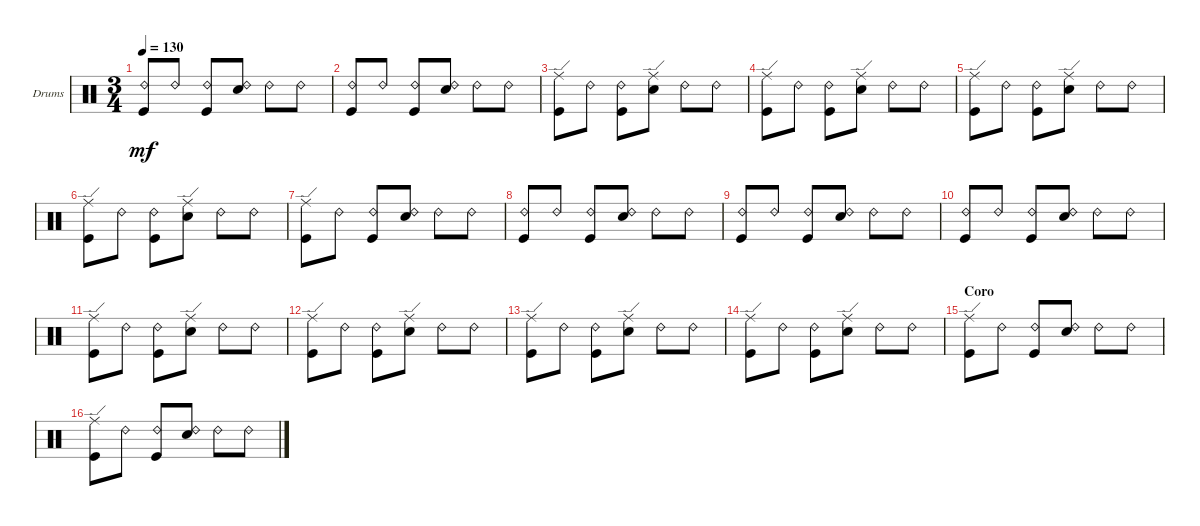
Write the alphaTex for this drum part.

\defaultSystemsLayout 4
\bracketExtendMode groupsimilarinstruments
\firstSystemTrackNameOrientation horizontal
\otherSystemsTrackNameOrientation horizontal
\track ("Drumkit" "Drums") {instrument percussion}
\staff {score}
\articulation defaults
\ts (3 4)
\tempo 130
\clef neutral
\ks c
("Kick (hit)" "Ride (bell) 2").8{dy mf} "Ride (bell) 2".8 ("Kick (hit)" "Ride (bell) 2").8 ("Snare (hit) 2" "Ride (bell) 2").8 "Ride (bell) 2".8 "Ride (bell) 2".8 |
("Kick (hit)" "Ride (bell) 2").8 "Ride (bell) 2".8 ("Kick (hit)" "Ride (bell) 2").8 ("Snare (hit) 2" "Ride (bell) 2").8 "Ride (bell) 2".8 "Ride (bell) 2".8 |
("Ride (edge)" "Kick (hit)").8 "Ride (bell) 2".8 ("Ride (bell) 2" "Kick (hit)").8 ("Ride (edge)" "Snare (hit) 2").8 "Ride (bell) 2".8 "Ride (bell) 2".8 |
("Ride (edge)" "Kick (hit)").8 "Ride (bell) 2".8 ("Ride (bell) 2" "Kick (hit)").8 ("Ride (edge)" "Snare (hit) 2").8 "Ride (bell) 2".8 "Ride (bell) 2".8 |
("Ride (edge)" "Kick (hit)").8 "Ride (bell) 2".8 ("Ride (bell) 2" "Kick (hit)").8 ("Ride (edge)" "Snare (hit) 2").8 "Ride (bell) 2".8 "Ride (bell) 2".8 |
("Ride (edge)" "Kick (hit)").8 "Ride (bell) 2".8 ("Ride (bell) 2" "Kick (hit)").8 ("Ride (edge)" "Snare (hit) 2").8 "Ride (bell) 2".8 "Ride (bell) 2".8 |
("Kick (hit)" "Ride (edge)").8 "Ride (bell) 2".8 ("Kick (hit)" "Ride (bell) 2").8 ("Snare (hit) 2" "Ride (bell) 2").8 "Ride (bell) 2".8 "Ride (bell) 2".8 |
("Kick (hit)" "Ride (bell) 2").8 "Ride (bell) 2".8 ("Kick (hit)" "Ride (bell) 2").8 ("Snare (hit) 2" "Ride (bell) 2").8 "Ride (bell) 2".8 "Ride (bell) 2".8 |
("Kick (hit)" "Ride (bell) 2").8 "Ride (bell) 2".8 ("Kick (hit)" "Ride (bell) 2").8 ("Snare (hit) 2" "Ride (bell) 2").8 "Ride (bell) 2".8 "Ride (bell) 2".8 |
("Kick (hit)" "Ride (bell) 2").8 "Ride (bell) 2".8 ("Kick (hit)" "Ride (bell) 2").8 ("Snare (hit) 2" "Ride (bell) 2").8 "Ride (bell) 2".8 "Ride (bell) 2".8 |
("Ride (edge)" "Kick (hit)").8 "Ride (bell) 2".8 ("Ride (bell) 2" "Kick (hit)").8 ("Ride (edge)" "Snare (hit) 2").8 "Ride (bell) 2".8 "Ride (bell) 2".8 |
("Ride (edge)" "Kick (hit)").8 "Ride (bell) 2".8 ("Ride (bell) 2" "Kick (hit)").8 ("Ride (edge)" "Snare (hit) 2").8 "Ride (bell) 2".8 "Ride (bell) 2".8 |
("Ride (edge)" "Kick (hit)").8 "Ride (bell) 2".8 ("Ride (bell) 2" "Kick (hit)").8 ("Ride (edge)" "Snare (hit) 2").8 "Ride (bell) 2".8 "Ride (bell) 2".8 |
("Ride (edge)" "Kick (hit)").8 "Ride (bell) 2".8 ("Ride (bell) 2" "Kick (hit)").8 ("Ride (edge)" "Snare (hit) 2").8 "Ride (bell) 2".8 "Ride (bell) 2".8 |
\section ("" "Coro")
("Kick (hit)" "Ride (edge)").8 "Ride (bell) 2".8 ("Kick (hit)" "Ride (bell) 2").8 ("Snare (hit) 2" "Ride (bell) 2").8 "Ride (bell) 2".8 "Ride (bell) 2".8 |
("Kick (hit)" "Ride (edge)").8 "Ride (bell) 2".8 ("Kick (hit)" "Ride (bell) 2").8 ("Snare (hit) 2" "Ride (bell) 2").8 "Ride (bell) 2".8 "Ride (bell) 2".8
